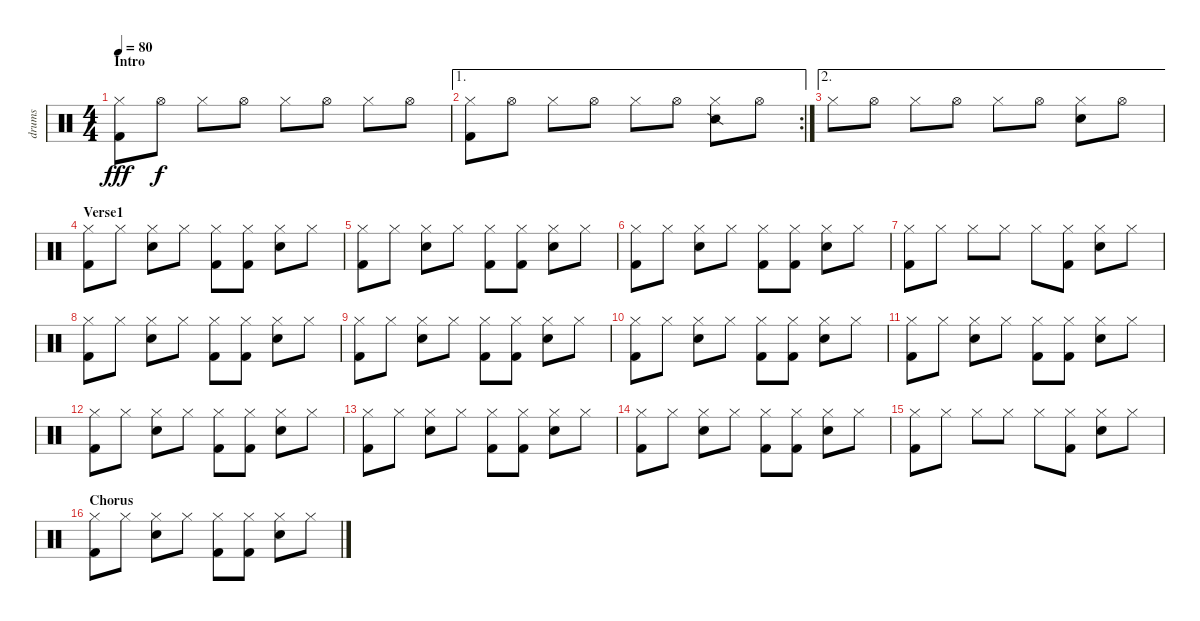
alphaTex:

\track ("drums" "drums") {instrument percussion}
\staff {score}
\articulation defaults
\ts (4 4)
\section ("" "Intro")
\tempo 80
\clef neutral
\ks c
("Hi-Hat (closed)" "Kick (hit) 2").8{dy fff} "Hi-Hat (open)".8{dy f} "Hi-Hat (closed)".8 "Hi-Hat (open)".8 "Hi-Hat (closed)".8 "Hi-Hat (open)".8 "Hi-Hat (closed)".8 "Hi-Hat (open)".8 |
\ae 1
\rc 2
("Hi-Hat (closed)" "Kick (hit) 2").8 "Hi-Hat (open)".8 "Hi-Hat (closed)".8 "Hi-Hat (open)".8 "Hi-Hat (closed)".8 "Hi-Hat (open)".8 ("Hi-Hat (closed)" "Snare (side stick) 2").8 "Hi-Hat (open)".8 |
\ae 2 "Hi-Hat (closed)".8 "Hi-Hat (open)".8 "Hi-Hat (closed)".8 "Hi-Hat (open)".8 "Hi-Hat (closed)".8 "Hi-Hat (open)".8
("Hi-Hat (closed)" "Electric Snare (hit)").8 "Hi-Hat (open)".8 |
\section ("" "Verse1")
("Hi-Hat (closed)" "Kick (hit) 2").8 "Hi-Hat (closed)".8 ("Hi-Hat (closed)" "Electric Snare (hit)").8 "Hi-Hat (closed)".8 ("Hi-Hat (closed)" "Kick (hit) 2").8 ("Hi-Hat (closed)" "Kick (hit) 2").8 ("Hi-Hat (closed)" "Electric Snare (hit)").8 "Hi-Hat (closed)".8 |
("Hi-Hat (closed)" "Kick (hit) 2").8 "Hi-Hat (closed)".8 ("Hi-Hat (closed)" "Electric Snare (hit)").8 "Hi-Hat (closed)".8 ("Hi-Hat (closed)" "Kick (hit) 2").8 ("Hi-Hat (closed)" "Kick (hit) 2").8 ("Hi-Hat (closed)" "Electric Snare (hit)").8 "Hi-Hat (closed)".8 |
("Hi-Hat (closed)" "Kick (hit) 2").8 "Hi-Hat (closed)".8 ("Hi-Hat (closed)" "Electric Snare (hit)").8 "Hi-Hat (closed)".8 ("Hi-Hat (closed)" "Kick (hit) 2").8 ("Hi-Hat (closed)" "Kick (hit) 2").8 ("Hi-Hat (closed)" "Electric Snare (hit)").8 "Hi-Hat (closed)".8 |
("Hi-Hat (closed)" "Kick (hit) 2").8 "Hi-Hat (closed)".8 "Hi-Hat (closed)".8 "Hi-Hat (closed)".8 "Hi-Hat (closed)".8 ("Hi-Hat (closed)" "Kick (hit) 2").8 ("Hi-Hat (closed)" "Electric Snare (hit)").8 "Hi-Hat (closed)".8 |
("Hi-Hat (closed)" "Kick (hit) 2").8 "Hi-Hat (closed)".8 ("Hi-Hat (closed)" "Electric Snare (hit)").8 "Hi-Hat (closed)".8 ("Hi-Hat (closed)" "Kick (hit) 2").8 ("Hi-Hat (closed)" "Kick (hit) 2").8 ("Hi-Hat (closed)" "Electric Snare (hit)").8 "Hi-Hat (closed)".8 |
("Hi-Hat (closed)" "Kick (hit) 2").8 "Hi-Hat (closed)".8 ("Hi-Hat (closed)" "Electric Snare (hit)").8 "Hi-Hat (closed)".8 ("Hi-Hat (closed)" "Kick (hit) 2").8 ("Hi-Hat (closed)" "Kick (hit) 2").8 ("Hi-Hat (closed)" "Electric Snare (hit)").8 "Hi-Hat (closed)".8 |
("Hi-Hat (closed)" "Kick (hit) 2").8 "Hi-Hat (closed)".8 ("Hi-Hat (closed)" "Electric Snare (hit)").8 "Hi-Hat (closed)".8 ("Hi-Hat (closed)" "Kick (hit) 2").8 ("Hi-Hat (closed)" "Kick (hit) 2").8 ("Hi-Hat (closed)" "Electric Snare (hit)").8 "Hi-Hat (closed)".8 |
("Hi-Hat (closed)" "Kick (hit) 2").8 "Hi-Hat (closed)".8 ("Hi-Hat (closed)" "Electric Snare (hit)").8 "Hi-Hat (closed)".8 ("Hi-Hat (closed)" "Kick (hit) 2").8 ("Hi-Hat (closed)" "Kick (hit) 2").8 ("Hi-Hat (closed)" "Electric Snare (hit)").8 "Hi-Hat (closed)".8 |
("Hi-Hat (closed)" "Kick (hit) 2").8 "Hi-Hat (closed)".8 ("Hi-Hat (closed)" "Electric Snare (hit)").8 "Hi-Hat (closed)".8 ("Hi-Hat (closed)" "Kick (hit) 2").8 ("Hi-Hat (closed)" "Kick (hit) 2").8 ("Hi-Hat (closed)" "Electric Snare (hit)").8 "Hi-Hat (closed)".8 |
("Hi-Hat (closed)" "Kick (hit) 2").8 "Hi-Hat (closed)".8 ("Hi-Hat (closed)" "Electric Snare (hit)").8 "Hi-Hat (closed)".8 ("Hi-Hat (closed)" "Kick (hit) 2").8 ("Hi-Hat (closed)" "Kick (hit) 2").8 ("Hi-Hat (closed)" "Electric Snare (hit)").8 "Hi-Hat (closed)".8 |
("Hi-Hat (closed)" "Kick (hit) 2").8 "Hi-Hat (closed)".8 ("Hi-Hat (closed)" "Electric Snare (hit)").8 "Hi-Hat (closed)".8 ("Hi-Hat (closed)" "Kick (hit) 2").8 ("Hi-Hat (closed)" "Kick (hit) 2").8 ("Hi-Hat (closed)" "Electric Snare (hit)").8 "Hi-Hat (closed)".8 |
("Hi-Hat (closed)" "Kick (hit) 2").8 "Hi-Hat (closed)".8 "Hi-Hat (closed)".8 "Hi-Hat (closed)".8 "Hi-Hat (closed)".8 ("Hi-Hat (closed)" "Kick (hit) 2").8 ("Hi-Hat (closed)" "Electric Snare (hit)").8 "Hi-Hat (closed)".8 |
\section ("" "Chorus")
("Hi-Hat (closed)" "Kick (hit) 2").8 "Hi-Hat (closed)".8 ("Hi-Hat (closed)" "Electric Snare (hit)").8 "Hi-Hat (closed)".8 ("Hi-Hat (closed)" "Kick (hit) 2").8 ("Hi-Hat (closed)" "Kick (hit) 2").8 ("Hi-Hat (closed)" "Electric Snare (hit)").8 "Hi-Hat (closed)".8
